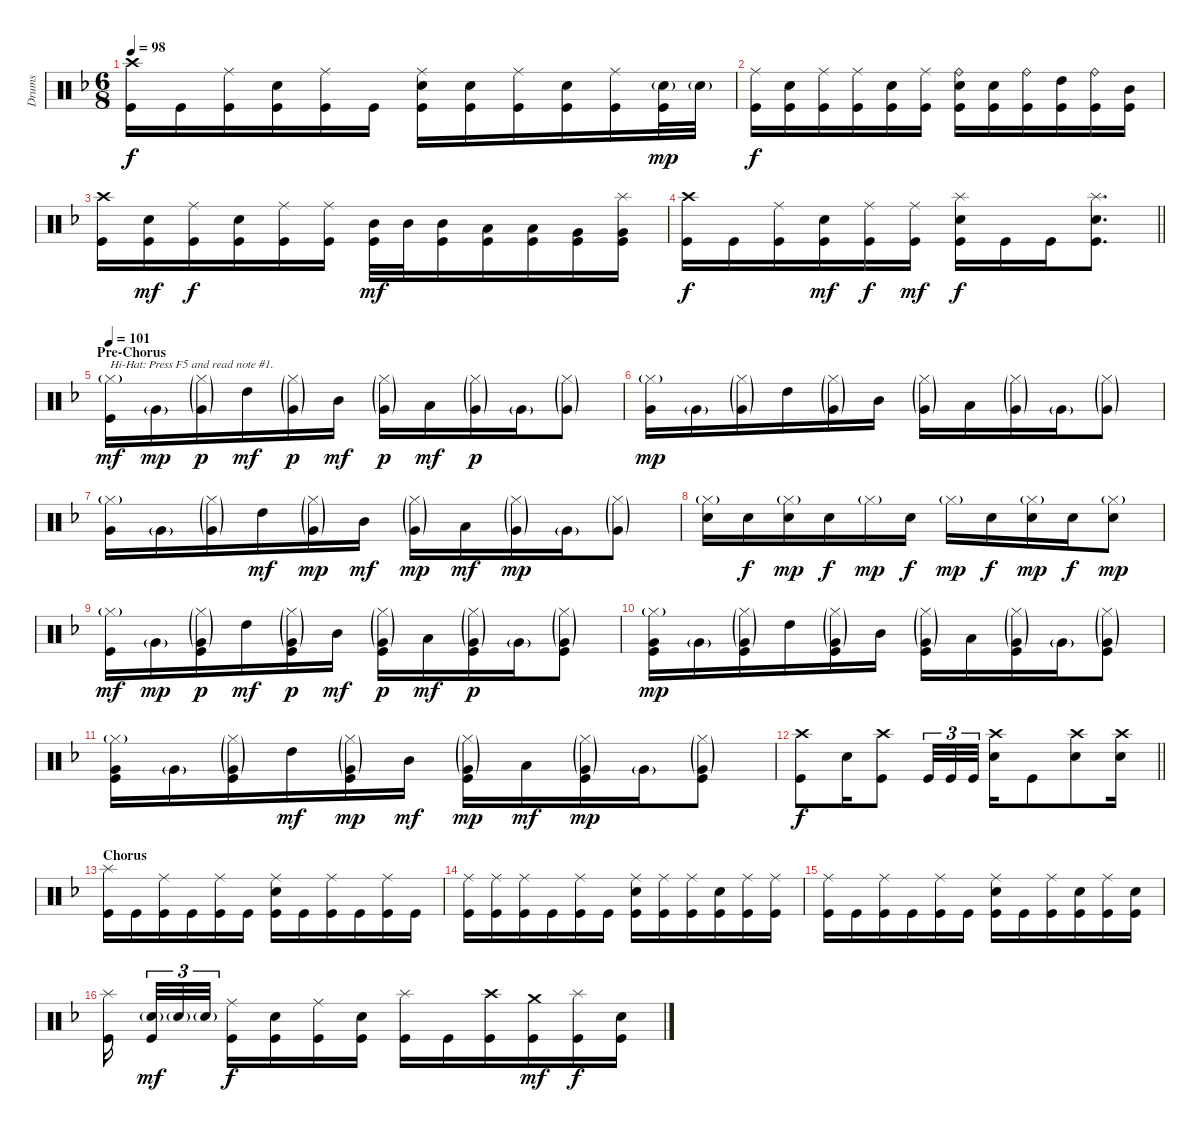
\track ("Drums" "Drums") {instrument percussion bank 10}
\staff {score}
\articulation defaults
\ts (6 8)
\tempo 98
\clef neutral
\ks dminor
("Crash high (hit)" "Kick (hit)").16{dy f} "Kick (hit)".16 ("Ride (middle)" "Kick (hit)").16 ("Electric Snare (hit)" "Kick (hit)").16 ("Ride (middle)" "Kick (hit)").16 "Kick (hit)".16 ("Ride (middle)" "Electric Snare (hit)" "Kick (hit)").16 ("Electric Snare (hit)" "Kick (hit)").16 ("Ride (middle)" "Kick (hit)").16 ("Electric Snare (hit)" "Kick (hit)").16 ("Ride (middle)" "Kick (hit)").16 ("Electric Snare (hit)"{g} "Kick (hit)").32{dy mp} "Electric Snare (hit)"{g}.32 |
("Ride (middle)" "Kick (hit)").16{dy f} ("Electric Snare (hit)" "Kick (hit)").16 ("Ride (middle)" "Kick (hit)").16 ("Ride (middle)" "Kick (hit)").16 ("Electric Snare (hit)" "Kick (hit)").16 ("Ride (middle)" "Kick (hit)").16 ("Ride (bell)" "Electric Snare (hit)" "Kick (hit)").16 ("Electric Snare (hit)" "Kick (hit)").16 ("Ride (bell)" "Kick (hit)").16 ("High Tom (hit)" "Kick (hit)").16 ("Ride (bell)" "Kick (hit)").16 ("Mid Tom (hit)" "Kick (hit)").16 |
("Crash high (hit)" "Kick (hit)").16 ("Electric Snare (hit)" "Kick (hit)").16{dy mf} ("Ride (middle)" "Kick (hit)").16{dy f} ("Electric Snare (hit)" "Kick (hit)").16 ("Ride (middle)" "Kick (hit)").16 ("Ride (middle)" "Kick (hit)").16 ("Mid Tom (hit)" "Kick (hit)").32{dy mf} "Mid Tom (hit)".32 ("Mid Tom (hit)" "Kick (hit)").16 ("Low Tom (hit)" "Kick (hit)").16 ("Low Tom (hit)" "Kick (hit)").16 ("Very Low Tom (hit)" "Kick (hit)").16 ("Splash (hit)" "Very Low Tom (hit)" "Kick (hit)").16 |
\barLineRight lightlight
("Crash high (hit)" "Kick (hit)").16{dy f} "Kick (hit)".16 ("Ride (middle)" "Kick (hit)").16 ("Electric Snare (hit)" "Kick (hit)").16{dy mf} ("Ride (middle)" "Kick (hit)").16{dy f} ("Ride (middle)" "Kick (hit)").16{dy mf} ("Splash (hit)" "Electric Snare (hit)" "Kick (hit)").16{dy f} "Kick (hit)".16 "Kick (hit)".16 ("Splash (hit)" "Electric Snare (hit)" "Kick (hit)").8{d} |
\section ("" "Pre-Chorus")
\tempo 101
("Hi-Hat (closed)"{g} "Kick (hit)").16{txt "Hi-Hat: Press F5 and read note #1." dy mf} "Very Low Tom (hit)"{g}.16{dy mp} ("Hi-Hat (closed)"{g} "Very Low Tom (hit)"{g}).16{dy p} "High Tom (hit)".16{dy mf} ("Hi-Hat (closed)"{g} "Very Low Tom (hit)"{g}).16{dy p} "Mid Tom (hit)".16{dy mf} ("Hi-Hat (closed)"{g} "Very Low Tom (hit)"{g}).16{dy p} "Low Tom (hit)".16{dy mf} ("Hi-Hat (closed)"{g} "Very Low Tom (hit)"{g}).16{dy p} "Very Low Tom (hit)"{g}.16 ("Hi-Hat (closed)"{g} "Very Low Tom (hit)"{g}).8 |
("Hi-Hat (closed)"{g} "Very Low Tom (hit)").16{dy mp} "Very Low Tom (hit)"{g}.16 ("Hi-Hat (closed)"{g} "Very Low Tom (hit)"{g}).16 "High Tom (hit)".16 ("Hi-Hat (closed)"{g} "Very Low Tom (hit)"{g}).16 "Mid Tom (hit)".16 ("Hi-Hat (closed)"{g} "Very Low Tom (hit)"{g}).16 "Low Tom (hit)".16 ("Hi-Hat (closed)"{g} "Very Low Tom (hit)"{g}).16 "Very Low Tom (hit)"{g}.16 ("Hi-Hat (closed)"{g} "Very Low Tom (hit)"{g}).8 |
("Hi-Hat (closed)"{g} "Very Low Tom (hit)").16 "Very Low Tom (hit)"{g}.16 ("Hi-Hat (closed)"{g} "Very Low Tom (hit)"{g}).16 "High Tom (hit)".16{dy mf} ("Hi-Hat (closed)"{g} "Very Low Tom (hit)"{g}).16{dy mp} "Mid Tom (hit)".16{dy mf} ("Hi-Hat (closed)"{g} "Very Low Tom (hit)"{g}).16{dy mp} "Low Tom (hit)".16{dy mf} ("Hi-Hat (closed)"{g} "Very Low Tom (hit)"{g}).16{dy mp} "Very Low Tom (hit)"{g}.16 ("Hi-Hat (closed)"{g} "Very Low Tom (hit)"{g}).8 |
("Hi-Hat (closed)"{g} "Electric Snare (hit)").16 "Electric Snare (hit)".16{dy f} ("Hi-Hat (closed)"{g} "Electric Snare (hit)").16{dy mp} "Electric Snare (hit)".16{dy f} "Hi-Hat (closed)"{g}.16{dy mp} "Electric Snare (hit)".16{dy f} "Hi-Hat (closed)"{g}.16{dy mp} "Electric Snare (hit)".16{dy f} ("Hi-Hat (closed)"{g} "Electric Snare (hit)").16{dy mp} "Electric Snare (hit)".16{dy f} ("Hi-Hat (closed)"{g} "Electric Snare (hit)").8{dy mp} |
("Hi-Hat (closed)"{g} "Kick (hit)").16{dy mf} "Very Low Tom (hit)"{g}.16{dy mp} ("Hi-Hat (closed)"{g} "Very Low Tom (hit)"{g} "Kick (hit)").16{dy p} "High Tom (hit)".16{dy mf} ("Hi-Hat (closed)"{g} "Very Low Tom (hit)"{g} "Kick (hit)").16{dy p} "Mid Tom (hit)".16{dy mf} ("Hi-Hat (closed)"{g} "Very Low Tom (hit)"{g} "Kick (hit)").16{dy p} "Low Tom (hit)".16{dy mf} ("Hi-Hat (closed)"{g} "Very Low Tom (hit)"{g} "Kick (hit)").16{dy p} "Very Low Tom (hit)"{g}.16 ("Hi-Hat (closed)"{g} "Very Low Tom (hit)"{g} "Kick (hit)").8 |
("Hi-Hat (closed)"{g} "Very Low Tom (hit)" "Kick (hit)").16{dy mp} "Very Low Tom (hit)"{g}.16 ("Hi-Hat (closed)"{g} "Very Low Tom (hit)"{g} "Kick (hit)").16 "High Tom (hit)".16 ("Hi-Hat (closed)"{g} "Very Low Tom (hit)"{g} "Kick (hit)").16 "Mid Tom (hit)".16 ("Hi-Hat (closed)"{g} "Very Low Tom (hit)"{g} "Kick (hit)").16 "Low Tom (hit)".16 ("Hi-Hat (closed)"{g} "Very Low Tom (hit)"{g} "Kick (hit)").16 "Very Low Tom (hit)"{g}.16 ("Hi-Hat (closed)"{g} "Very Low Tom (hit)"{g} "Kick (hit)").8 |
("Hi-Hat (closed)"{g} "Very Low Tom (hit)" "Kick (hit)").16 "Very Low Tom (hit)"{g}.16 ("Hi-Hat (closed)"{g} "Very Low Tom (hit)"{g} "Kick (hit)").16 "High Tom (hit)".16{dy mf} ("Hi-Hat (closed)"{g} "Very Low Tom (hit)"{g} "Kick (hit)").16{dy mp} "Mid Tom (hit)".16{dy mf} ("Hi-Hat (closed)"{g} "Very Low Tom (hit)"{g} "Kick (hit)").16{dy mp} "Low Tom (hit)".16{dy mf} ("Hi-Hat (closed)"{g} "Very Low Tom (hit)"{g} "Kick (hit)").16{dy mp} "Very Low Tom (hit)"{g}.16 ("Hi-Hat (closed)"{g} "Very Low Tom (hit)"{g} "Kick (hit)").8 |
\barLineRight lightlight
("Crash high (hit)" "Kick (hit)").8{dy f} "Electric Snare (hit)".16 ("Crash high (hit)" "Kick (hit)").8 "Kick (hit)".32{tu (3 2)} "Kick (hit)".32{tu (3 2)} "Kick (hit)".32{tu (3 2)} ("Crash high (hit)" "Electric Snare (hit)").16 "Kick (hit)".8 ("Crash high (hit)" "Electric Snare (hit)").8 ("Crash high (hit)" "Electric Snare (hit)").16 |
\section ("" "Chorus")
("Splash (hit)" "Kick (hit)").16 "Kick (hit)".16 ("Ride (middle)" "Kick (hit)").16 "Kick (hit)".16 ("Ride (middle)" "Kick (hit)").16 "Kick (hit)".16 ("Ride (middle)" "Electric Snare (hit)" "Kick (hit)").16 "Kick (hit)".16 ("Ride (middle)" "Kick (hit)").16 "Kick (hit)".16 ("Ride (middle)" "Kick (hit)").16 "Kick (hit)".16 |
("Ride (middle)" "Kick (hit)").16 ("Ride (middle)" "Kick (hit)").16 ("Ride (middle)" "Kick (hit)").16 "Kick (hit)".16 ("Ride (middle)" "Kick (hit)").16 "Kick (hit)".16 ("Ride (middle)" "Electric Snare (hit)" "Kick (hit)").16 ("Ride (middle)" "Kick (hit)").16 ("Ride (middle)" "Kick (hit)").16 ("Electric Snare (hit)" "Kick (hit)").16 ("Ride (middle)" "Kick (hit)").16 ("Ride (middle)" "Kick (hit)").16 |
("Ride (middle)" "Kick (hit)").16 "Kick (hit)".16 ("Ride (middle)" "Kick (hit)").16 "Kick (hit)".16 ("Ride (middle)" "Kick (hit)").16 "Kick (hit)".16 ("Ride (middle)" "Electric Snare (hit)" "Kick (hit)").16 "Kick (hit)".16 ("Ride (middle)" "Kick (hit)").16 ("Electric Snare (hit)" "Kick (hit)").16 ("Ride (middle)" "Kick (hit)").16 ("Electric Snare (hit)" "Kick (hit)").16 |
("Splash (hit)" "Kick (hit)").16{beam splitsecondary} ("Electric Snare (hit)"{g} "Kick (hit)").32{tu (3 2) dy mf} "Electric Snare (hit)"{g}.32{tu (3 2)} "Electric Snare (hit)"{g}.32{tu (3 2) beam splitsecondary} ("Ride (middle)" "Kick (hit)").16{dy f} ("Electric Snare (hit)" "Kick (hit)").16 ("Ride (middle)" "Kick (hit)").16 ("Electric Snare (hit)" "Kick (hit)").16 ("Splash (hit)" "Kick (hit)").16 "Kick (hit)".16 ("Crash high (hit)" "Kick (hit)").16 ("Crash medium (hit)" "Kick (hit)").16{dy mf} ("Splash (hit)" "Kick (hit)").16{dy f} ("Electric Snare (hit)" "Kick (hit)").16
